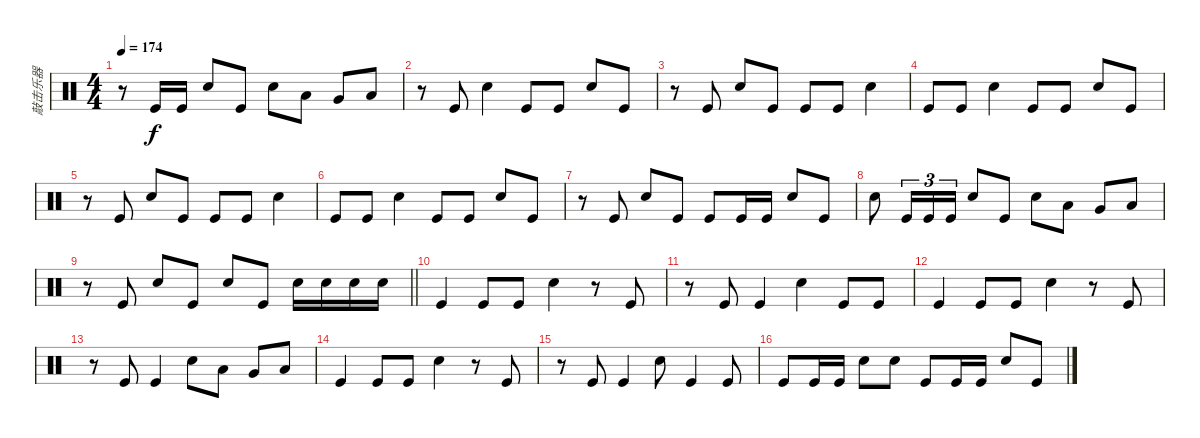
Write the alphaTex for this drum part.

\track ("敲击乐器" "敲击乐器") {instrument percussion}
\staff {score}
\articulation defaults
\ts (4 4)
\tempo 174
\clef neutral
\ks c
r.8{dy f} "Kick (hit)".16 "Kick (hit)".16 "Snare (hit) 2".8 "Kick (hit)".8 "Snare (hit) 2".8 "Low Tom (hit)".8 "Very Low Tom (hit)".8 "Low Floor Tom (hit)".8 |
r.8 "Kick (hit)".8 "Snare (hit) 2".4 "Kick (hit)".8 "Kick (hit)".8 "Snare (hit) 2".8 "Kick (hit)".8 |
r.8 "Kick (hit)".8 "Snare (hit) 2".8 "Kick (hit)".8 "Kick (hit)".8 "Kick (hit)".8 "Snare (hit) 2".4 |
"Kick (hit)".8 "Kick (hit)".8 "Snare (hit) 2".4 "Kick (hit)".8 "Kick (hit)".8 "Snare (hit) 2".8 "Kick (hit)".8 |
r.8 "Kick (hit)".8 "Snare (hit) 2".8 "Kick (hit)".8 "Kick (hit)".8 "Kick (hit)".8 "Snare (hit) 2".4 |
"Kick (hit)".8 "Kick (hit)".8 "Snare (hit) 2".4 "Kick (hit)".8 "Kick (hit)".8 "Snare (hit) 2".8 "Kick (hit)".8 |
r.8 "Kick (hit)".8 "Snare (hit) 2".8 "Kick (hit)".8 "Kick (hit)".8 "Kick (hit)".16 "Kick (hit)".16 "Snare (hit) 2".8 "Kick (hit)".8 |
"Snare (hit) 2".8 "Kick (hit)".16{tu (3 2)} "Kick (hit)".16{tu (3 2)} "Kick (hit)".16{tu (3 2)} "Snare (hit) 2".8 "Kick (hit)".8 "Snare (hit) 2".8 "Low Tom (hit)".8 "Very Low Tom (hit)".8 "Low Floor Tom (hit)".8 |
\barLineRight lightlight
r.8 "Kick (hit)".8 "Snare (hit) 2".8 "Kick (hit)".8 "Snare (hit) 2".8 "Kick (hit)".8 "Snare (hit) 2".16 "Snare (hit) 2".16 "Snare (hit) 2".16 "Snare (hit) 2".16 |
"Kick (hit)".4 "Kick (hit)".8 "Kick (hit)".8 "Snare (hit) 2".4 r.8 "Kick (hit)".8 |
r.8 "Kick (hit)".8 "Kick (hit)".4 "Snare (hit) 2".4 "Kick (hit)".8 "Kick (hit)".8 |
"Kick (hit)".4 "Kick (hit)".8 "Kick (hit)".8 "Snare (hit) 2".4 r.8 "Kick (hit)".8 |
r.8 "Kick (hit)".8 "Kick (hit)".4 "Snare (hit) 2".8 "Low Tom (hit)".8 "Very Low Tom (hit)".8 "Low Floor Tom (hit)".8 |
"Kick (hit)".4 "Kick (hit)".8 "Kick (hit)".8 "Snare (hit) 2".4 r.8 "Kick (hit)".8 |
r.8 "Kick (hit)".8 "Kick (hit)".4 "Snare (hit) 2".8 "Kick (hit)".4 "Kick (hit)".8 |
"Kick (hit)".8 "Kick (hit)".16 "Kick (hit)".16 "Snare (hit) 2".8 "Snare (hit) 2".8 "Kick (hit)".8 "Kick (hit)".16 "Kick (hit)".16 "Snare (hit) 2".8 "Kick (hit)".8
